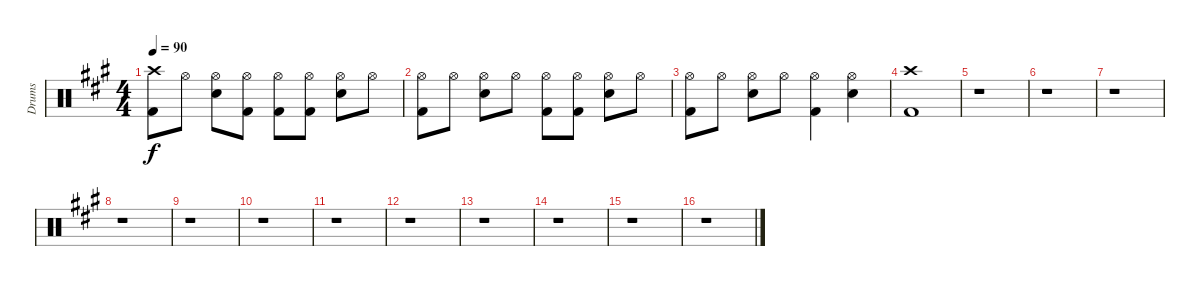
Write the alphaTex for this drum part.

\track ("Drums" "Drums") {instrument percussion}
\staff {score}
\articulation defaults
\ts (4 4)
\tempo 90
\clef neutral
\ks a
("Crash high (hit)" "Kick (hit) 2").8{dy f} "Hi-Hat (open)".8 ("Hi-Hat (open)" "Electric Snare (hit)").8 ("Hi-Hat (open)" "Kick (hit) 2").8 ("Hi-Hat (open)" "Kick (hit) 2").8 ("Hi-Hat (open)" "Kick (hit) 2").8 ("Hi-Hat (open)" "Electric Snare (hit)").8 "Hi-Hat (open)".8 |
("Hi-Hat (open)" "Kick (hit) 2").8 "Hi-Hat (open)".8 ("Hi-Hat (open)" "Electric Snare (hit)").8 "Hi-Hat (open)".8 ("Hi-Hat (open)" "Kick (hit) 2").8 ("Hi-Hat (open)" "Kick (hit) 2").8 ("Hi-Hat (open)" "Electric Snare (hit)").8 "Hi-Hat (open)".8 |
("Hi-Hat (open)" "Kick (hit) 2").8 "Hi-Hat (open)".8 ("Hi-Hat (open)" "Electric Snare (hit)").8 "Hi-Hat (open)".8 ("Hi-Hat (open)" "Kick (hit) 2").4 ("Hi-Hat (open)" "Electric Snare (hit)").4 |
("Crash high (hit)" "Kick (hit) 2").1 |
r.1 |
r.1 |
r.1 |
r.1 |
r.1 |
r.1 |
r.1 |
r.1 |
r.1 |
r.1 |
r.1 |
r.1
